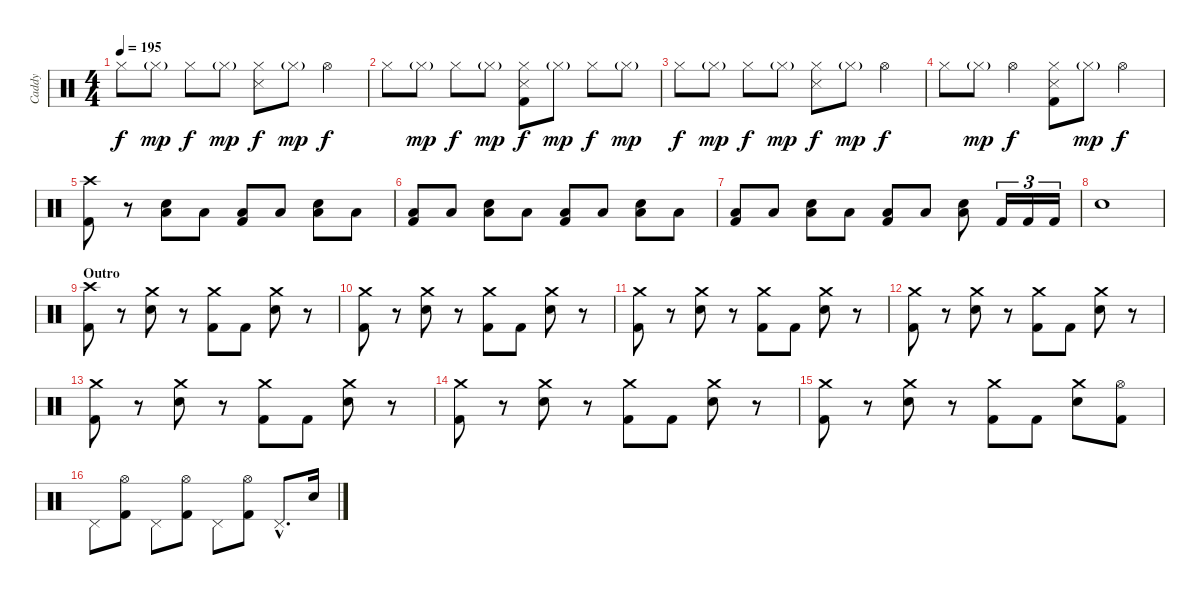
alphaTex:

\track ("Caddy" "Caddy") {instrument percussion}
\staff {score}
\articulation defaults
\ts (4 4)
\tempo 195
\clef neutral
\ks c "Hi-Hat (closed)".8{dy f} "Hi-Hat (closed)"{g}.8{dy mp} "Hi-Hat (closed)".8{dy f} "Hi-Hat (closed)"{g}.8{dy mp}
("Hi-Hat (closed)" "Snare (side stick) 3").8{dy f} "Hi-Hat (closed)"{g}.8{dy mp} "Hi-Hat (open)".4{dy f} |
"Hi-Hat (closed)".8 "Hi-Hat (closed)"{g}.8{dy mp} "Hi-Hat (closed)".8{dy f} "Hi-Hat (closed)"{g}.8{dy mp} ("Hi-Hat (closed)" "Snare (side stick) 3" "Kick (hit) 2").8{dy f} "Hi-Hat (closed)"{g}.8{dy mp} "Hi-Hat (closed)".8{dy f} "Hi-Hat (closed)"{g}.8{dy mp} |
"Hi-Hat (closed)".8{dy f} "Hi-Hat (closed)"{g}.8{dy mp} "Hi-Hat (closed)".8{dy f} "Hi-Hat (closed)"{g}.8{dy mp} ("Hi-Hat (closed)" "Snare (side stick) 3").8{dy f} "Hi-Hat (closed)"{g}.8{dy mp} "Hi-Hat (open)".4{dy f} |
"Hi-Hat (closed)".8 "Hi-Hat (closed)"{g}.8{dy mp} "Hi-Hat (open)".4{dy f} ("Hi-Hat (closed)" "Snare (side stick) 3" "Kick (hit) 2").8 "Hi-Hat (closed)"{g}.8{dy mp} "Hi-Hat (open)".4{dy f} |
("Crash high (hit)" "Kick (hit) 2").8 r.8 ("Electric Snare (hit)" "Low Floor Tom (hit)").8 "Low Floor Tom (hit)".8 ("Low Floor Tom (hit)" "Kick (hit) 2").8 "Low Floor Tom (hit)".8 ("Electric Snare (hit)" "Low Floor Tom (hit)").8 "Low Floor Tom (hit)".8 |
("Low Floor Tom (hit)" "Kick (hit) 2").8 "Low Floor Tom (hit)".8 ("Electric Snare (hit)" "Low Floor Tom (hit)").8 "Low Floor Tom (hit)".8 ("Low Floor Tom (hit)" "Kick (hit) 2").8 "Low Floor Tom (hit)".8 ("Electric Snare (hit)" "Low Floor Tom (hit)").8 "Low Floor Tom (hit)".8 |
("Low Floor Tom (hit)" "Kick (hit) 2").8 "Low Floor Tom (hit)".8 ("Electric Snare (hit)" "Low Floor Tom (hit)").8 "Low Floor Tom (hit)".8 ("Low Floor Tom (hit)" "Kick (hit) 2").8 "Low Floor Tom (hit)".8 ("Electric Snare (hit)" "Low Floor Tom (hit)").8 "Kick (hit) 2".16{tu (3 2)} "Kick (hit) 2".16{tu (3 2)} "Kick (hit) 2".16{tu (3 2)} |
"Electric Snare (hit)".1 |
\section ("" "Outro")
("Crash high (hit)" "Kick (hit) 2").8 r.8 ("Crash medium (hit)" "Electric Snare (hit)").8 r.8 ("Crash medium (hit)" "Kick (hit) 2").8 "Kick (hit) 2".8 ("Crash medium (hit)" "Electric Snare (hit)").8 r.8 |
("Crash medium (hit)" "Kick (hit) 2").8 r.8 ("Crash medium (hit)" "Electric Snare (hit)").8 r.8 ("Crash medium (hit)" "Kick (hit) 2").8 "Kick (hit) 2".8 ("Crash medium (hit)" "Electric Snare (hit)").8 r.8 |
("Crash medium (hit)" "Kick (hit) 2").8 r.8 ("Crash medium (hit)" "Electric Snare (hit)").8 r.8 ("Crash medium (hit)" "Kick (hit) 2").8 "Kick (hit) 2".8 ("Crash medium (hit)" "Electric Snare (hit)").8 r.8 |
("Crash medium (hit)" "Kick (hit) 2").8 r.8 ("Crash medium (hit)" "Electric Snare (hit)").8 r.8 ("Crash medium (hit)" "Kick (hit) 2").8 "Kick (hit) 2".8 ("Crash medium (hit)" "Electric Snare (hit)").8 r.8 |
("Crash medium (hit)" "Kick (hit) 2").8 r.8 ("Crash medium (hit)" "Electric Snare (hit)").8 r.8 ("Crash medium (hit)" "Kick (hit) 2").8 "Kick (hit) 2".8 ("Crash medium (hit)" "Electric Snare (hit)").8 r.8 |
("Crash medium (hit)" "Kick (hit) 2").8 r.8 ("Crash medium (hit)" "Electric Snare (hit)").8 r.8 ("Crash medium (hit)" "Kick (hit) 2").8 "Kick (hit) 2".8 ("Crash medium (hit)" "Electric Snare (hit)").8 r.8 |
("Crash medium (hit)" "Kick (hit) 2").8 r.8 ("Crash medium (hit)" "Electric Snare (hit)").8 r.8 ("Crash medium (hit)" "Kick (hit) 2").8 "Kick (hit) 2".8 ("Crash medium (hit)" "Electric Snare (hit)").8 ("Hi-Hat (open)" "Kick (hit) 2").8 |
"Pedal Hi-Hat (hit)".8 ("Hi-Hat (open)" "Kick (hit) 2").8 "Pedal Hi-Hat (hit)".8 ("Hi-Hat (open)" "Kick (hit) 2").8 "Pedal Hi-Hat (hit)".8 ("Hi-Hat (open)" "Kick (hit) 2").8 "Pedal Hi-Hat (hit)"{hac}.8{d} "Electric Snare (hit)".16
